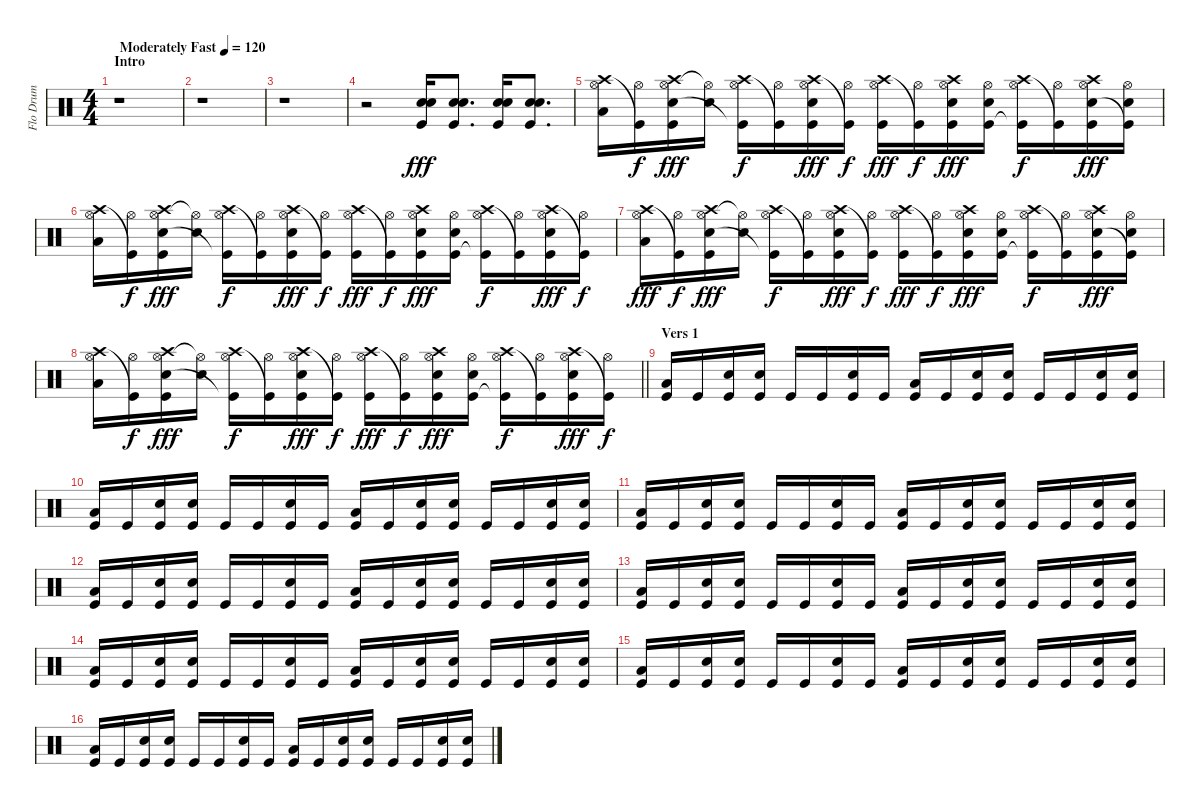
\track ("Flo Drum" "Flo Drum") {instrument percussion}
\staff {score}
\articulation defaults
\ts (4 4)
\section ("" "Intro")
\tempo (120 "Moderately Fast")
\clef neutral
\ks c
r.1{dy fff} |
r.1 |
r.1 |
r.2{volume 12} ("Kick (hit)" "Electric Snare (hit)" "Snare (hit) 2").16 ("Kick (hit)" "Snare (hit) 2" "Electric Snare (hit)").8{d} ("Kick (hit)" "Electric Snare (hit)" "Snare (hit) 2").16 ("Kick (hit)" "Snare (hit) 2" "Electric Snare (hit)").8{d} |
("Hi-Hat (open)" "Crash high (hit)" "Low Floor Tom (hit)").16{volume 11} ("Hi-Hat (open)" "Kick (hit)"{t}).16{dy f} ("Hi-Hat (open)" "Crash high (hit)" "Snare (hit) 2" "Kick (hit)").16{dy fff} ("Hi-Hat (open)"{t} "Snare (hit) 2").16 ("Hi-Hat (open)" "Crash high (hit)" "Kick (hit)"{t}).16{dy f} ("Hi-Hat (open)" "Kick (hit)"{t}).16 ("Hi-Hat (open)" "Crash high (hit)" "Snare (hit) 2" "Kick (hit)").16{dy fff} ("Hi-Hat (open)" "Kick (hit)"{t}).16{dy f} ("Hi-Hat (open)" "Crash high (hit)" "Kick (hit)").16{dy fff} ("Hi-Hat (open)" "Kick (hit)"{t}).16{dy f} ("Hi-Hat (open)" "Crash high (hit)" "Snare (hit) 2" "Kick (hit)").16{dy fff} ("Hi-Hat (open)" "Snare (hit) 2" "Kick (hit)").16 ("Hi-Hat (open)" "Crash high (hit)" "Kick (hit)"{t}).16{dy f} ("Hi-Hat (open)" "Kick (hit)"{t}).16 ("Hi-Hat (open)" "Crash high (hit)" "Snare (hit) 2" "Kick (hit)").16{dy fff} ("Hi-Hat (open)" "Snare (hit) 2" "Kick (hit)"{t}).16 |
("Hi-Hat (open)" "Crash high (hit)" "Low Floor Tom (hit)").16 ("Hi-Hat (open)" "Kick (hit)"{t}).16{dy f} ("Hi-Hat (open)" "Crash high (hit)" "Snare (hit) 2" "Kick (hit)").16{dy fff} ("Hi-Hat (open)"{t} "Snare (hit) 2").16 ("Hi-Hat (open)" "Crash high (hit)" "Kick (hit)"{t}).16{dy f} ("Hi-Hat (open)" "Kick (hit)"{t}).16 ("Hi-Hat (open)" "Crash high (hit)" "Snare (hit) 2" "Kick (hit)").16{dy fff} ("Hi-Hat (open)" "Kick (hit)"{t}).16{dy f} ("Hi-Hat (open)" "Crash high (hit)" "Kick (hit)").16{dy fff} ("Hi-Hat (open)" "Kick (hit)"{t}).16{dy f} ("Hi-Hat (open)" "Crash high (hit)" "Snare (hit) 2" "Kick (hit)").16{dy fff} ("Hi-Hat (open)" "Snare (hit) 2" "Kick (hit)").16 ("Hi-Hat (open)" "Crash high (hit)" "Kick (hit)"{t}).16{dy f} ("Hi-Hat (open)" "Kick (hit)"{t}).16 ("Hi-Hat (open)" "Crash high (hit)" "Snare (hit) 2" "Kick (hit)").16{dy fff} ("Hi-Hat (open)" "Kick (hit)"{t}).16{dy f} |
("Hi-Hat (open)" "Crash high (hit)" "Low Floor Tom (hit)").16{dy fff} ("Hi-Hat (open)" "Kick (hit)"{t}).16{dy f} ("Hi-Hat (open)" "Crash high (hit)" "Snare (hit) 2" "Kick (hit)").16{dy fff} ("Hi-Hat (open)"{t} "Snare (hit) 2").16 ("Hi-Hat (open)" "Crash high (hit)" "Kick (hit)"{t}).16{dy f} ("Hi-Hat (open)" "Kick (hit)"{t}).16 ("Hi-Hat (open)" "Crash high (hit)" "Snare (hit) 2" "Kick (hit)").16{dy fff} ("Hi-Hat (open)" "Kick (hit)"{t}).16{dy f} ("Hi-Hat (open)" "Crash high (hit)" "Kick (hit)").16{dy fff} ("Hi-Hat (open)" "Kick (hit)"{t}).16{dy f} ("Hi-Hat (open)" "Crash high (hit)" "Snare (hit) 2" "Kick (hit)").16{dy fff} ("Hi-Hat (open)" "Snare (hit) 2" "Kick (hit)").16 ("Hi-Hat (open)" "Crash high (hit)" "Kick (hit)"{t}).16{dy f} ("Hi-Hat (open)" "Kick (hit)"{t}).16 ("Hi-Hat (open)" "Crash high (hit)" "Snare (hit) 2" "Kick (hit)").16{dy fff} ("Hi-Hat (open)" "Snare (hit) 2" "Kick (hit)"{t}).16 |
\barLineRight lightlight
("Hi-Hat (open)" "Crash high (hit)" "Low Floor Tom (hit)").16 ("Hi-Hat (open)" "Kick (hit)"{t}).16{dy f} ("Hi-Hat (open)" "Crash high (hit)" "Snare (hit) 2" "Kick (hit)").16{dy fff} ("Hi-Hat (open)"{t} "Snare (hit) 2").16 ("Hi-Hat (open)" "Crash high (hit)" "Kick (hit)"{t}).16{dy f} ("Hi-Hat (open)" "Kick (hit)"{t}).16 ("Hi-Hat (open)" "Crash high (hit)" "Snare (hit) 2" "Kick (hit)").16{dy fff} ("Hi-Hat (open)" "Kick (hit)"{t}).16{dy f} ("Hi-Hat (open)" "Crash high (hit)" "Kick (hit)").16{dy fff} ("Hi-Hat (open)" "Kick (hit)"{t}).16{dy f} ("Hi-Hat (open)" "Crash high (hit)" "Snare (hit) 2" "Kick (hit)").16{dy fff} ("Hi-Hat (open)" "Snare (hit) 2" "Kick (hit)").16 ("Hi-Hat (open)" "Crash high (hit)" "Kick (hit)"{t}).16{dy f} ("Hi-Hat (open)" "Kick (hit)"{t}).16 ("Hi-Hat (open)" "Crash high (hit)" "Snare (hit) 2" "Kick (hit)").16{dy fff} ("Hi-Hat (open)" "Kick (hit)"{t}).16{dy f} |
\section ("" "Vers 1")
("Low Floor Tom (hit)" "Kick (hit)").16 "Kick (hit)".16 ("Electric Snare (hit)" "Kick (hit)").16 ("Electric Snare (hit)" "Kick (hit)").16 "Kick (hit)".16 "Kick (hit)".16 ("Electric Snare (hit)" "Kick (hit)").16 "Kick (hit)".16 ("Low Floor Tom (hit)" "Kick (hit)").16 "Kick (hit)".16 ("Electric Snare (hit)" "Kick (hit)").16 ("Electric Snare (hit)" "Kick (hit)").16 "Kick (hit)".16 "Kick (hit)".16 ("Electric Snare (hit)" "Kick (hit)").16 ("Electric Snare (hit)" "Kick (hit)").16 |
("Low Floor Tom (hit)" "Kick (hit)").16 "Kick (hit)".16 ("Electric Snare (hit)" "Kick (hit)").16 ("Electric Snare (hit)" "Kick (hit)").16 "Kick (hit)".16 "Kick (hit)".16 ("Electric Snare (hit)" "Kick (hit)").16 "Kick (hit)".16 ("Low Floor Tom (hit)" "Kick (hit)").16 "Kick (hit)".16 ("Electric Snare (hit)" "Kick (hit)").16 ("Electric Snare (hit)" "Kick (hit)").16 "Kick (hit)".16 "Kick (hit)".16 ("Electric Snare (hit)" "Kick (hit)").16 ("Electric Snare (hit)" "Kick (hit)").16 |
("Low Floor Tom (hit)" "Kick (hit)").16 "Kick (hit)".16 ("Electric Snare (hit)" "Kick (hit)").16 ("Electric Snare (hit)" "Kick (hit)").16 "Kick (hit)".16 "Kick (hit)".16 ("Electric Snare (hit)" "Kick (hit)").16 "Kick (hit)".16 ("Low Floor Tom (hit)" "Kick (hit)").16 "Kick (hit)".16 ("Electric Snare (hit)" "Kick (hit)").16 ("Electric Snare (hit)" "Kick (hit)").16 "Kick (hit)".16 "Kick (hit)".16 ("Electric Snare (hit)" "Kick (hit)").16 ("Electric Snare (hit)" "Kick (hit)").16 |
("Low Floor Tom (hit)" "Kick (hit)").16 "Kick (hit)".16 ("Electric Snare (hit)" "Kick (hit)").16 ("Electric Snare (hit)" "Kick (hit)").16 "Kick (hit)".16 "Kick (hit)".16 ("Electric Snare (hit)" "Kick (hit)").16 "Kick (hit)".16 ("Low Floor Tom (hit)" "Kick (hit)").16 "Kick (hit)".16 ("Electric Snare (hit)" "Kick (hit)").16 ("Electric Snare (hit)" "Kick (hit)").16 "Kick (hit)".16 "Kick (hit)".16 ("Electric Snare (hit)" "Kick (hit)").16 ("Electric Snare (hit)" "Kick (hit)").16 |
("Low Floor Tom (hit)" "Kick (hit)").16 "Kick (hit)".16 ("Electric Snare (hit)" "Kick (hit)").16 ("Electric Snare (hit)" "Kick (hit)").16 "Kick (hit)".16 "Kick (hit)".16 ("Electric Snare (hit)" "Kick (hit)").16 "Kick (hit)".16 ("Low Floor Tom (hit)" "Kick (hit)").16 "Kick (hit)".16 ("Electric Snare (hit)" "Kick (hit)").16 ("Electric Snare (hit)" "Kick (hit)").16 "Kick (hit)".16 "Kick (hit)".16 ("Electric Snare (hit)" "Kick (hit)").16 ("Electric Snare (hit)" "Kick (hit)").16 |
("Low Floor Tom (hit)" "Kick (hit)").16 "Kick (hit)".16 ("Electric Snare (hit)" "Kick (hit)").16 ("Electric Snare (hit)" "Kick (hit)").16 "Kick (hit)".16 "Kick (hit)".16 ("Electric Snare (hit)" "Kick (hit)").16 "Kick (hit)".16 ("Low Floor Tom (hit)" "Kick (hit)").16 "Kick (hit)".16 ("Electric Snare (hit)" "Kick (hit)").16 ("Electric Snare (hit)" "Kick (hit)").16 "Kick (hit)".16 "Kick (hit)".16 ("Electric Snare (hit)" "Kick (hit)").16 ("Electric Snare (hit)" "Kick (hit)").16 |
("Low Floor Tom (hit)" "Kick (hit)").16 "Kick (hit)".16 ("Electric Snare (hit)" "Kick (hit)").16 ("Electric Snare (hit)" "Kick (hit)").16 "Kick (hit)".16 "Kick (hit)".16 ("Electric Snare (hit)" "Kick (hit)").16 "Kick (hit)".16 ("Low Floor Tom (hit)" "Kick (hit)").16 "Kick (hit)".16 ("Electric Snare (hit)" "Kick (hit)").16 ("Electric Snare (hit)" "Kick (hit)").16 "Kick (hit)".16 "Kick (hit)".16 ("Electric Snare (hit)" "Kick (hit)").16 ("Electric Snare (hit)" "Kick (hit)").16 |
("Low Floor Tom (hit)" "Kick (hit)").16 "Kick (hit)".16 ("Electric Snare (hit)" "Kick (hit)").16 ("Electric Snare (hit)" "Kick (hit)").16 "Kick (hit)".16 "Kick (hit)".16 ("Electric Snare (hit)" "Kick (hit)").16 "Kick (hit)".16 ("Low Floor Tom (hit)" "Kick (hit)").16 "Kick (hit)".16 ("Electric Snare (hit)" "Kick (hit)").16 ("Electric Snare (hit)" "Kick (hit)").16 "Kick (hit)".16 "Kick (hit)".16 ("Electric Snare (hit)" "Kick (hit)").16 ("Electric Snare (hit)" "Kick (hit)").16
